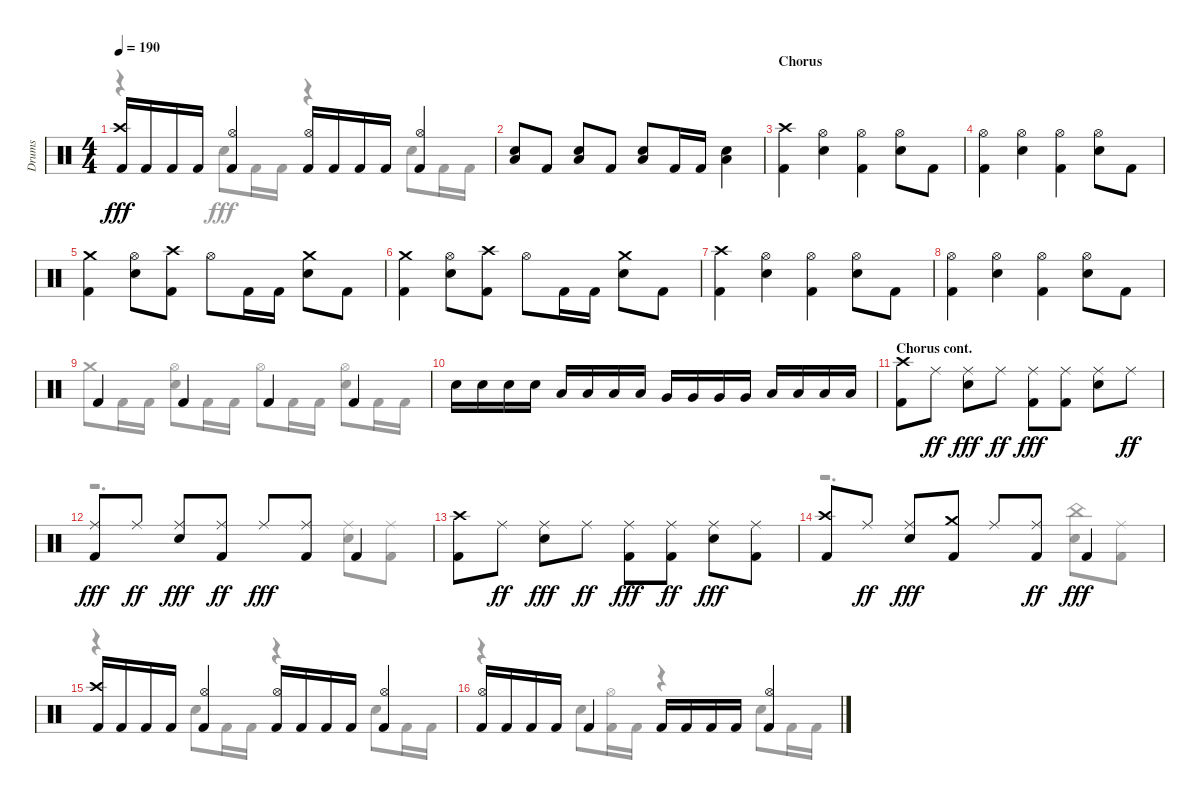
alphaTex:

\track ("Drums" "Drums") {instrument percussion}
\staff {score}
\articulation defaults
\voice
\ts (4 4)
\tempo 190
\clef neutral
\ks aminor
("Kick (hit) 2" "Crash high (hit)").16{dy fff} "Kick (hit) 2".16 "Kick (hit) 2".16 "Kick (hit) 2".16 ("Hi-Hat (open)" "Kick (hit) 2").4 ("Hi-Hat (open)" "Kick (hit) 2").16 "Kick (hit) 2".16 "Kick (hit) 2".16 "Kick (hit) 2".16 ("Kick (hit) 2" "Hi-Hat (open)").4 |
("Snare (hit) 2" "Low Floor Tom (hit)").8 "Kick (hit) 2".8 ("Snare (hit) 2" "Low Floor Tom (hit)").8 "Kick (hit) 2".8 ("Snare (hit) 2" "Low Floor Tom (hit)").8 "Kick (hit) 2".16 "Kick (hit) 2".16 ("Low Floor Tom (hit)" "Snare (hit) 2").4 |
\section ("" "Chorus")
("Kick (hit) 2" "Crash high (hit)").4 ("Hi-Hat (open)" "Snare (hit) 2").4 ("Kick (hit) 2" "Hi-Hat (open)").4 ("Snare (hit) 2" "Hi-Hat (open)").8 "Kick (hit) 2".8 |
("Hi-Hat (open)" "Kick (hit) 2").4 ("Snare (hit) 2" "Hi-Hat (open)").4 ("Hi-Hat (open)" "Kick (hit) 2").4 ("Hi-Hat (open)" "Snare (hit) 2").8 "Kick (hit) 2".8 |
("Crash medium (hit)" "Kick (hit) 2").4 ("Snare (hit) 2" "Hi-Hat (open)").8 ("Crash high (hit)" "Kick (hit) 2").8 "Hi-Hat (open)".8 "Kick (hit) 2".16 "Kick (hit) 2".16 ("Crash medium (hit)" "Snare (hit) 2").8 "Kick (hit) 2".8 |
("Kick (hit) 2" "Crash medium (hit)").4 ("Hi-Hat (open)" "Snare (hit) 2").8 ("Crash high (hit)" "Kick (hit) 2").8 "Hi-Hat (open)".8 "Kick (hit) 2".16 "Kick (hit) 2".16 ("Snare (hit) 2" "Crash medium (hit)").8 "Kick (hit) 2".8 |
("Crash high (hit)" "Kick (hit) 2").4 ("Hi-Hat (open)" "Snare (hit) 2").4 ("Kick (hit) 2" "Hi-Hat (open)").4 ("Snare (hit) 2" "Hi-Hat (open)").8 "Kick (hit) 2".8 |
("Hi-Hat (open)" "Kick (hit) 2").4 ("Snare (hit) 2" "Hi-Hat (open)").4 ("Kick (hit) 2" "Hi-Hat (open)").4 ("Hi-Hat (open)" "Snare (hit) 2").8 "Kick (hit) 2".8 |
"Kick (hit) 2".4 "Kick (hit) 2".4 "Kick (hit) 2".4 "Kick (hit) 2".4 |
"Snare (hit) 2".16 "Snare (hit) 2".16 "Snare (hit) 2".16 "Snare (hit) 2".16 "Low Tom (hit)".16 "Low Tom (hit)".16 "Low Tom (hit)".16 "Low Tom (hit)".16 "Very Low Tom (hit)".16 "Very Low Tom (hit)".16 "Very Low Tom (hit)".16 "Very Low Tom (hit)".16 "Low Floor Tom (hit)".16 "Low Floor Tom (hit)".16 "Low Floor Tom (hit)".16 "Low Floor Tom (hit)".16 |
\section ("" "Chorus cont.")
("Crash high (hit)" "Kick (hit) 2").8 "Ride (middle)".8{dy ff} ("Snare (hit) 2" "Ride (middle)").8{dy fff} "Ride (middle)".8{dy ff} ("Kick (hit) 2" "Ride (middle)").8{dy fff} ("Kick (hit) 2" "Ride (middle)").8 ("Snare (hit) 2" "Ride (middle)").8 "Ride (middle)".8{dy ff} |
("Ride (middle)" "Kick (hit) 2").8{dy fff} "Ride (middle)".8{dy ff} ("Snare (hit) 2" "Ride (middle)").8{dy fff} ("Kick (hit) 2" "Ride (middle)").8{dy ff} "Ride (middle)".8{dy fff} ("Ride (middle)" "Kick (hit) 2").8 "Kick (hit) 2".4 |
("Kick (hit) 2" "Crash high (hit)").8 "Ride (middle)".8{dy ff} ("Snare (hit) 2" "Ride (middle)").8{dy fff} "Ride (middle)".8{dy ff} ("Kick (hit) 2" "Ride (middle)").8{dy fff} ("Ride (middle)" "Kick (hit) 2").8{dy ff} ("Snare (hit) 2" "Ride (middle)").8{dy fff} ("Kick (hit) 2" "Ride (middle)").8 |
("Crash high (hit)" "Kick (hit) 2").8 "Ride (middle)".8{dy ff} ("Snare (hit) 2" "Ride (middle)").8{dy fff} ("Crash medium (hit)" "Kick (hit) 2").8 "Ride (middle)".8 ("Ride (middle)" "Kick (hit) 2").8{dy ff} "Kick (hit) 2".4{dy fff} |
("Kick (hit) 2" "Crash high (hit)").16 "Kick (hit) 2".16 "Kick (hit) 2".16 "Kick (hit) 2".16 ("Hi-Hat (open)" "Kick (hit) 2").4 ("Hi-Hat (open)" "Kick (hit) 2").16 "Kick (hit) 2".16 "Kick (hit) 2".16 "Kick (hit) 2".16 ("Kick (hit) 2" "Hi-Hat (open)").4 |
("Kick (hit) 2" "Hi-Hat (open)").16 "Kick (hit) 2".16 "Kick (hit) 2".16 "Kick (hit) 2".16 "Kick (hit) 2".4 "Kick (hit) 2".16 "Kick (hit) 2".16 "Kick (hit) 2".16 "Kick (hit) 2".16 ("Hi-Hat (open)" "Kick (hit) 2").4
\voice
\clef neutral
\ottava regular
\simile none
\ks aminor
r.4{dy fff} "Snare (hit) 2".8 "Kick (hit) 2".16 "Kick (hit) 2".16 r.4 "Snare (hit) 2".8 "Kick (hit) 2".16 "Kick (hit) 2".16 |
|
|
|
|
|
|
|
"Crash medium (hit)".8 "Kick (hit) 2".16 "Kick (hit) 2".16 ("Hi-Hat (open)" "Snare (hit) 2").8 "Kick (hit) 2".16 "Kick (hit) 2".16 "Hi-Hat (open)".8 "Kick (hit) 2".16 "Kick (hit) 2".16 ("Snare (hit) 2" "Hi-Hat (open)").8 "Kick (hit) 2".16 "Kick (hit) 2".16 |
|
|
r.2{d} ("Snare (hit) 2" "Ride (middle)").8 ("Kick (hit) 2" "Ride (middle)").8 |
|
r.2{d} ("China (hit)" "Snare (hit) 2").8 ("Kick (hit) 2" "Ride (middle)").8 |
r.4 "Snare (hit) 2".8 "Kick (hit) 2".16 "Kick (hit) 2".16 r.4 "Snare (hit) 2".8 "Kick (hit) 2".16 "Kick (hit) 2".16 |
r.4 "Snare (hit) 2".8 ("Kick (hit) 2" "Hi-Hat (open)").16 "Kick (hit) 2".16 r.4 "Snare (hit) 2".8 "Kick (hit) 2".16 "Kick (hit) 2".16
